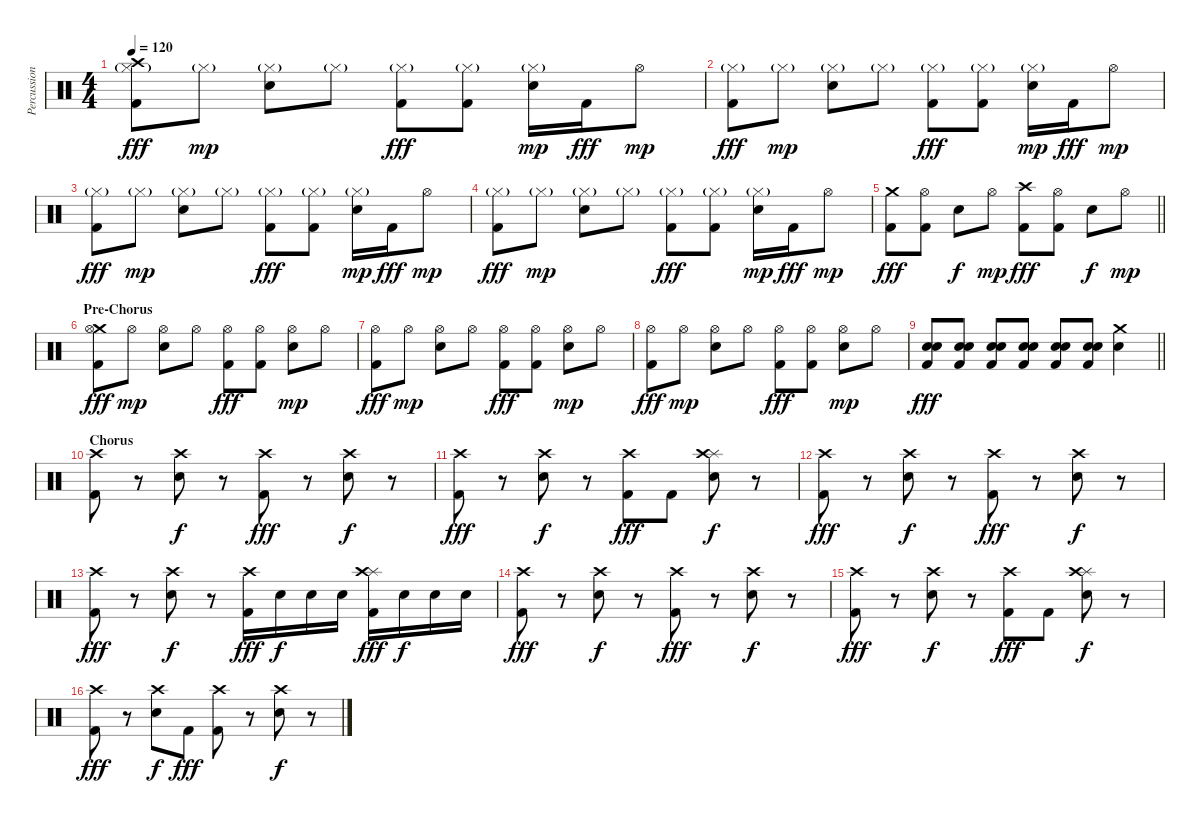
\track ("Percussion" "Percussion") {instrument percussion}
\staff {score}
\articulation defaults
\ts (4 4)
\tempo 120
\clef neutral
\ks c
("Crash high (hit)" "Hi-Hat (closed)"{g} "Kick (hit) 2").8{dy fff} "Hi-Hat (closed)"{g}.8{dy mp} ("Hi-Hat (closed)"{g} "Electric Snare (hit)").8 "Hi-Hat (closed)"{g}.8 ("Hi-Hat (closed)"{g} "Kick (hit) 2").8{dy fff} ("Hi-Hat (closed)"{g} "Kick (hit) 2").8 ("Hi-Hat (closed)"{g} "Electric Snare (hit)").16{dy mp} "Kick (hit) 2".16{dy fff} "Hi-Hat (open)".8{dy mp} |
("Hi-Hat (closed)"{g} "Kick (hit) 2").8{dy fff} "Hi-Hat (closed)"{g}.8{dy mp} ("Hi-Hat (closed)"{g} "Electric Snare (hit)").8 "Hi-Hat (closed)"{g}.8 ("Hi-Hat (closed)"{g} "Kick (hit) 2").8{dy fff} ("Hi-Hat (closed)"{g} "Kick (hit) 2").8 ("Hi-Hat (closed)"{g} "Electric Snare (hit)").16{dy mp} "Kick (hit) 2".16{dy fff} "Hi-Hat (open)".8{dy mp} |
("Hi-Hat (closed)"{g} "Kick (hit) 2").8{dy fff} "Hi-Hat (closed)"{g}.8{dy mp} ("Hi-Hat (closed)"{g} "Electric Snare (hit)").8 "Hi-Hat (closed)"{g}.8 ("Hi-Hat (closed)"{g} "Kick (hit) 2").8{dy fff} ("Hi-Hat (closed)"{g} "Kick (hit) 2").8 ("Hi-Hat (closed)"{g} "Electric Snare (hit)").16{dy mp} "Kick (hit) 2".16{dy fff} "Hi-Hat (open)".8{dy mp} |
("Hi-Hat (closed)"{g} "Kick (hit) 2").8{dy fff} "Hi-Hat (closed)"{g}.8{dy mp} ("Hi-Hat (closed)"{g} "Electric Snare (hit)").8 "Hi-Hat (closed)"{g}.8 ("Hi-Hat (closed)"{g} "Kick (hit) 2").8{dy fff} ("Hi-Hat (closed)"{g} "Kick (hit) 2").8 ("Hi-Hat (closed)"{g} "Electric Snare (hit)").16{dy mp} "Kick (hit) 2".16{dy fff} "Hi-Hat (open)".8{dy mp} |
\barLineRight lightlight
("Crash medium (hit)" "Kick (hit) 2").8{dy fff} ("Hi-Hat (open)" "Kick (hit) 2").8 "Electric Snare (hit)".8{dy f} "Hi-Hat (open)".8{dy mp} ("Crash high (hit)" "Kick (hit) 2").8{dy fff} ("Hi-Hat (open)" "Kick (hit) 2").8 "Electric Snare (hit)".8{dy f} "Hi-Hat (open)".8{dy mp} |
\section ("" "Pre-Chorus")
("Crash medium (hit)" "Hi-Hat (open)" "Kick (hit) 2").8{dy fff} "Hi-Hat (open)".8{dy mp} ("Hi-Hat (open)" "Electric Snare (hit)").8 "Hi-Hat (open)".8 ("Hi-Hat (open)" "Kick (hit) 2").8{dy fff} ("Hi-Hat (open)" "Kick (hit) 2").8 ("Hi-Hat (open)" "Electric Snare (hit)").8{dy mp} "Hi-Hat (open)".8 |
("Hi-Hat (open)" "Kick (hit) 2").8{dy fff} "Hi-Hat (open)".8{dy mp} ("Hi-Hat (open)" "Electric Snare (hit)").8 "Hi-Hat (open)".8 ("Hi-Hat (open)" "Kick (hit) 2").8{dy fff} ("Hi-Hat (open)" "Kick (hit) 2").8 ("Hi-Hat (open)" "Electric Snare (hit)").8{dy mp} "Hi-Hat (open)".8 |
("Hi-Hat (open)" "Kick (hit) 2").8{dy fff} "Hi-Hat (open)".8{dy mp} ("Hi-Hat (open)" "Electric Snare (hit)").8 "Hi-Hat (open)".8 ("Hi-Hat (open)" "Kick (hit) 2").8{dy fff} ("Hi-Hat (open)" "Kick (hit) 2").8 ("Hi-Hat (open)" "Electric Snare (hit)").8{dy mp} "Hi-Hat (open)".8 |
\barLineRight lightlight
("Electric Snare (hit)" "Electric Snare (hit)" "Kick (hit) 2").8{dy fff} ("Electric Snare (hit)" "Electric Snare (hit)" "Kick (hit) 2").8 ("Electric Snare (hit)" "Electric Snare (hit)" "Kick (hit) 2").8 ("Electric Snare (hit)" "Electric Snare (hit)" "Kick (hit) 2").8 ("Electric Snare (hit)" "Electric Snare (hit)" "Kick (hit) 2").8 ("Electric Snare (hit)" "Electric Snare (hit)" "Kick (hit) 2").8 ("Crash medium (hit)" "Snare (hit) 2").4 |
\section ("" "Chorus")
("Crash high (hit)" "Kick (hit) 2").8 r.8 ("Electric Snare (hit)" "Crash high (hit)").8{dy f} r.8 ("Crash high (hit)" "Kick (hit) 2").8{dy fff} r.8 ("Electric Snare (hit)" "Crash high (hit)").8{dy f} r.8 |
("Crash high (hit)" "Kick (hit) 2").8{dy fff} r.8 ("Electric Snare (hit)" "Crash high (hit)").8{dy f} r.8 ("Crash high (hit)" "Kick (hit) 2").8{dy fff} "Kick (hit) 2".8 ("Splash (hit)" "Electric Snare (hit)" "Crash high (hit)").8{dy f} r.8 |
("Crash high (hit)" "Kick (hit) 2").8{dy fff} r.8 ("Electric Snare (hit)" "Crash high (hit)").8{dy f} r.8 ("Crash high (hit)" "Kick (hit) 2").8{dy fff} r.8 ("Electric Snare (hit)" "Crash high (hit)").8{dy f} r.8 |
("Crash high (hit)" "Kick (hit) 2").8{dy fff} r.8 ("Electric Snare (hit)" "Crash high (hit)").8{dy f} r.8 ("Crash high (hit)" "Kick (hit) 2").16{dy fff} "Snare (hit) 2".16{dy f} "Electric Snare (hit)".16 "Snare (hit) 2".16 ("Splash (hit)" "Crash high (hit)" "Kick (hit) 2").16{dy fff} "Snare (hit) 2".16{dy f} "Electric Snare (hit)".16 "Snare (hit) 2".16 |
("Crash high (hit)" "Kick (hit) 2").8{dy fff} r.8 ("Electric Snare (hit)" "Crash high (hit)").8{dy f} r.8 ("Crash high (hit)" "Kick (hit) 2").8{dy fff} r.8 ("Electric Snare (hit)" "Crash high (hit)").8{dy f} r.8 |
("Crash high (hit)" "Kick (hit) 2").8{dy fff} r.8 ("Electric Snare (hit)" "Crash high (hit)").8{dy f} r.8 ("Crash high (hit)" "Kick (hit) 2").8{dy fff} "Kick (hit) 2".8 ("Splash (hit)" "Electric Snare (hit)" "Crash high (hit)").8{dy f} r.8 |
("Crash high (hit)" "Kick (hit) 2").8{dy fff} r.8 ("Electric Snare (hit)" "Crash high (hit)").8{dy f} "Kick (hit) 2".8{dy fff} ("Crash high (hit)" "Kick (hit) 2").8 r.8 ("Electric Snare (hit)" "Crash high (hit)").8{dy f} r.8
